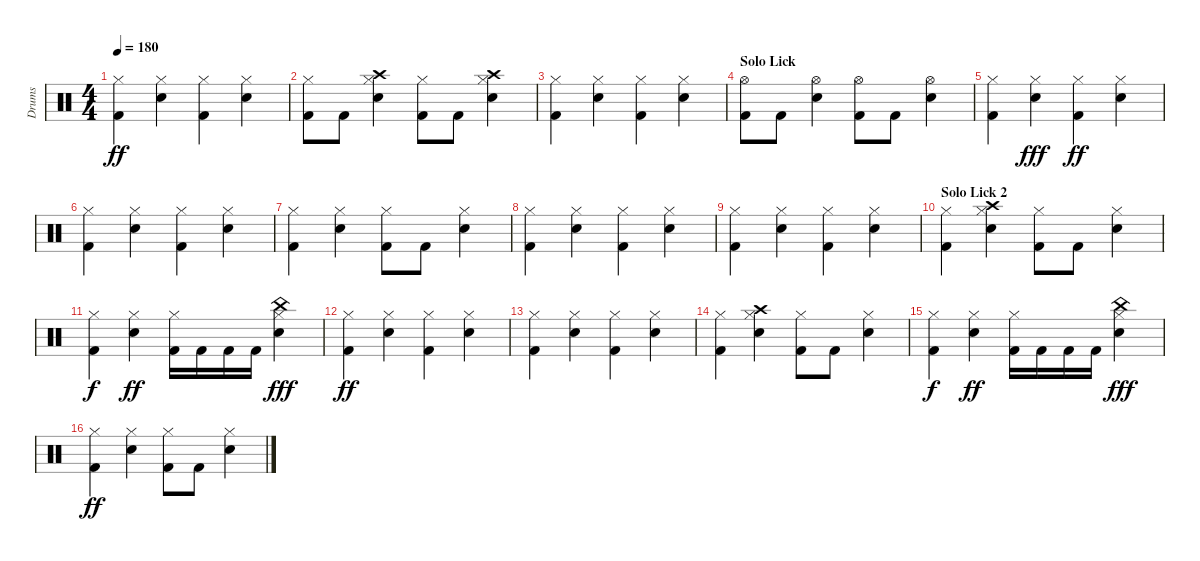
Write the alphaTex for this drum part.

\track ("Drums" "Drums") {instrument percussion}
\staff {score}
\articulation defaults
\ts (4 4)
\tempo 180
\clef neutral
\ks c
("Hi-Hat (closed)" "Kick (hit) 2").4{dy ff} ("Hi-Hat (closed)" "Snare (hit) 2").4 ("Hi-Hat (closed)" "Kick (hit) 2").4 ("Hi-Hat (closed)" "Snare (hit) 2").4 |
("Hi-Hat (closed)" "Kick (hit) 2").8 "Kick (hit) 2".8 ("Hi-Hat (closed)" "Crash high (hit)" "Snare (hit) 2").4 ("Hi-Hat (closed)" "Kick (hit) 2").8 "Kick (hit) 2".8 ("Hi-Hat (closed)" "Crash high (hit)" "Snare (hit) 2").4 |
("Hi-Hat (closed)" "Kick (hit) 2").4 ("Hi-Hat (closed)" "Snare (hit) 2").4 ("Hi-Hat (closed)" "Kick (hit) 2").4 ("Hi-Hat (closed)" "Snare (hit) 2").4 |
\section ("" "Solo Lick")
("Hi-Hat (open)" "Kick (hit) 2").8 "Kick (hit) 2".8 ("Hi-Hat (open)" "Snare (hit) 2").4 ("Hi-Hat (open)" "Kick (hit) 2").8 "Kick (hit) 2".8 ("Hi-Hat (open)" "Snare (hit) 2").4 |
("Hi-Hat (closed)" "Kick (hit) 2").4 ("Hi-Hat (closed)" "Snare (hit) 2").4{dy fff} ("Hi-Hat (closed)" "Kick (hit) 2").4{dy ff} ("Hi-Hat (closed)" "Snare (hit) 2").4 |
("Hi-Hat (closed)" "Kick (hit) 2").4 ("Hi-Hat (closed)" "Snare (hit) 2").4 ("Hi-Hat (closed)" "Kick (hit) 2").4 ("Hi-Hat (closed)" "Snare (hit) 2").4 |
("Hi-Hat (closed)" "Kick (hit) 2").4 ("Hi-Hat (closed)" "Snare (hit) 2").4 ("Hi-Hat (closed)" "Kick (hit) 2").8 "Kick (hit) 2".8 ("Hi-Hat (closed)" "Snare (hit) 2").4 |
("Hi-Hat (closed)" "Kick (hit) 2").4 ("Hi-Hat (closed)" "Snare (hit) 2").4 ("Hi-Hat (closed)" "Kick (hit) 2").4 ("Hi-Hat (closed)" "Snare (hit) 2").4 |
("Hi-Hat (closed)" "Kick (hit) 2").4 ("Hi-Hat (closed)" "Snare (hit) 2").4 ("Hi-Hat (closed)" "Kick (hit) 2").4 ("Hi-Hat (closed)" "Snare (hit) 2").4 |
\section ("" "Solo Lick 2")
("Hi-Hat (closed)" "Kick (hit) 2").4 ("Hi-Hat (closed)" "Crash high (hit)" "Snare (hit) 2").4 ("Hi-Hat (closed)" "Kick (hit) 2").8 "Kick (hit) 2".8 ("Hi-Hat (closed)" "Snare (hit) 2").4 |
("Hi-Hat (closed)" "Kick (hit) 2").4{dy f} ("Hi-Hat (closed)" "Snare (hit) 2").4{dy ff} ("Hi-Hat (closed)" "Kick (hit) 2").16 "Kick (hit) 2".16 "Kick (hit) 2".16 "Kick (hit) 2".16 ("Hi-Hat (closed)" "China (hit)" "Snare (hit) 2").4{dy fff} |
("Hi-Hat (closed)" "Kick (hit) 2").4{dy ff} ("Hi-Hat (closed)" "Snare (hit) 2").4 ("Hi-Hat (closed)" "Kick (hit) 2").4 ("Hi-Hat (closed)" "Snare (hit) 2").4 |
("Hi-Hat (closed)" "Kick (hit) 2").4 ("Hi-Hat (closed)" "Snare (hit) 2").4 ("Hi-Hat (closed)" "Kick (hit) 2").4 ("Hi-Hat (closed)" "Snare (hit) 2").4 |
("Hi-Hat (closed)" "Kick (hit) 2").4 ("Hi-Hat (closed)" "Crash high (hit)" "Snare (hit) 2").4 ("Hi-Hat (closed)" "Kick (hit) 2").8 "Kick (hit) 2".8 ("Hi-Hat (closed)" "Snare (hit) 2").4 |
("Hi-Hat (closed)" "Kick (hit) 2").4{dy f} ("Hi-Hat (closed)" "Snare (hit) 2").4{dy ff} ("Hi-Hat (closed)" "Kick (hit) 2").16 "Kick (hit) 2".16 "Kick (hit) 2".16 "Kick (hit) 2".16 ("Hi-Hat (closed)" "China (hit)" "Snare (hit) 2").4{dy fff} |
("Hi-Hat (closed)" "Kick (hit) 2").4{dy ff} ("Hi-Hat (closed)" "Snare (hit) 2").4 ("Hi-Hat (closed)" "Kick (hit) 2").8 "Kick (hit) 2".8 ("Hi-Hat (closed)" "Snare (hit) 2").4
